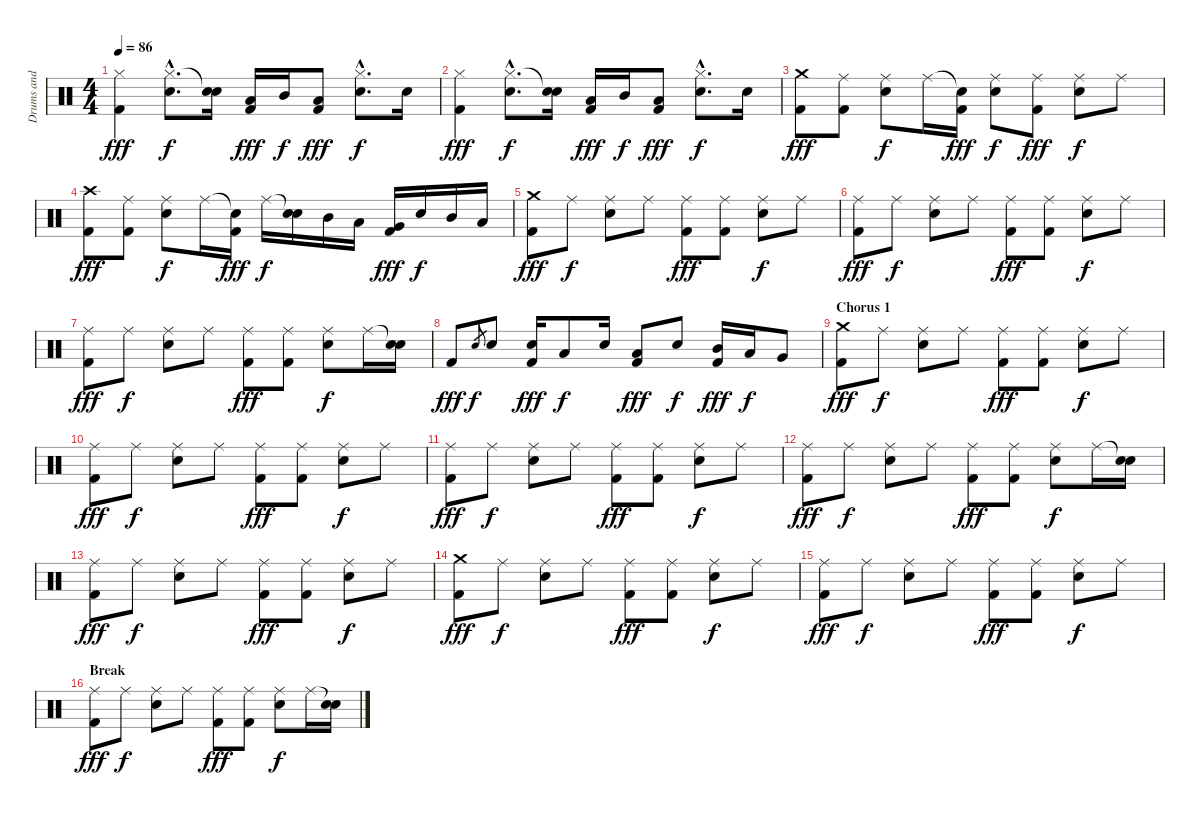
\track ("Drums and Percussion" "Drums and ") {instrument percussion}
\staff {score}
\articulation defaults
\ts (4 4)
\tempo 86
\clef neutral
\ks c
("Hi-Hat (closed)" "Kick (hit) 2").4{dy fff} ("Hi-Hat (closed)"{hac} "Snare (hit) 2"{hac}).8{d dy f} ("Snare (hit)"{t} "Snare (hit) 2").16 ("Low Tom (hit)" "Kick (hit) 2").16{dy fff} "Mid Tom (hit)".16{dy f} ("Low Tom (hit)" "Kick (hit) 2").8{dy fff} ("Hi-Hat (closed)"{hac} "Snare (hit) 2"{hac}).8{d dy f} "Snare (hit) 2".16 |
("Hi-Hat (closed)" "Kick (hit) 2").4{dy fff} ("Hi-Hat (closed)"{hac} "Snare (hit) 2"{hac}).8{d dy f} ("Snare (hit)"{t} "Snare (hit) 2").16 ("Low Tom (hit)" "Kick (hit) 2").16{dy fff} "Mid Tom (hit)".16{dy f} ("Low Tom (hit)" "Kick (hit) 2").8{dy fff} ("Hi-Hat (closed)"{hac} "Snare (hit) 2"{hac}).8{d dy f} "Snare (hit) 2".16 |
("Crash medium (hit)" "Kick (hit) 2").8{dy fff} ("Ride (middle)" "Kick (hit) 2").8 ("Ride (middle)" "Snare (hit) 2").8{dy f} "Ride (middle)".16 ("Snare (hit)"{t} "Kick (hit) 2").16{dy fff} ("Ride (middle)" "Snare (hit) 2").8{dy f} ("Ride (middle)" "Kick (hit) 2").8{dy fff} ("Ride (middle)" "Snare (hit) 2").8{dy f} "Ride (middle)".8 |
("Crash high (hit)" "Kick (hit) 2").8{dy fff} ("Ride (middle)" "Kick (hit) 2").8 ("Ride (middle)" "Snare (hit) 2").8{dy f} "Ride (middle)".16 ("Snare (hit)"{t} "Kick (hit) 2").16{dy fff} "Ride (middle)".16{dy f} ("Snare (hit)"{t} "Snare (hit) 2").16 "Mid Tom (hit)".16 "Low Tom (hit)".16 ("Very Low Tom (hit)" "Kick (hit) 2").16{dy fff} "Snare (hit) 2".16{dy f} "Mid Tom (hit)".16 "Low Tom (hit)".16 |
("Crash medium (hit)" "Kick (hit) 2").8{dy fff} "Ride (middle)".8{dy f} ("Ride (middle)" "Snare (hit) 2").8 "Ride (middle)".8 ("Ride (middle)" "Kick (hit) 2").8{dy fff} ("Ride (middle)" "Kick (hit) 2").8 ("Ride (middle)" "Snare (hit) 2").8{dy f} "Ride (middle)".8 |
("Ride (middle)" "Kick (hit) 2").8{dy fff} "Ride (middle)".8{dy f} ("Ride (middle)" "Snare (hit) 2").8 "Ride (middle)".8 ("Ride (middle)" "Kick (hit) 2").8{dy fff} ("Ride (middle)" "Kick (hit) 2").8 ("Ride (middle)" "Snare (hit) 2").8{dy f} "Ride (middle)".8 |
("Ride (middle)" "Kick (hit) 2").8{dy fff} "Ride (middle)".8{dy f} ("Ride (middle)" "Snare (hit) 2").8 "Ride (middle)".8 ("Ride (middle)" "Kick (hit) 2").8{dy fff} ("Ride (middle)" "Kick (hit) 2").8 ("Ride (middle)" "Snare (hit) 2").8{dy f} "Ride (middle)".16 ("Snare (hit)"{t} "Snare (hit) 2").16 |
"Kick (hit) 2".8{dy fff} "Snare (hit) 2".8{gr dy f} "Snare (hit) 2".8 ("Snare (hit) 2" "Kick (hit) 2").16{dy fff} "Low Tom (hit)".8{dy f} "Snare (hit) 2".16 ("Low Tom (hit)" "Kick (hit) 2").8{dy fff} "Snare (hit) 2".8{dy f} ("Mid Tom (hit)" "Kick (hit) 2").16{dy fff} "Low Tom (hit)".16{dy f} "Very Low Tom (hit)".8 |
\section ("" "Chorus 1")
("Crash medium (hit)" "Kick (hit) 2").8{dy fff} "Ride (middle)".8{dy f} ("Ride (middle)" "Snare (hit) 2").8 "Ride (middle)".8 ("Ride (middle)" "Kick (hit) 2").8{dy fff} ("Ride (middle)" "Kick (hit) 2").8 ("Ride (middle)" "Snare (hit) 2").8{dy f} "Ride (middle)".8 |
("Ride (middle)" "Kick (hit) 2").8{dy fff} "Ride (middle)".8{dy f} ("Ride (middle)" "Snare (hit) 2").8 "Ride (middle)".8 ("Ride (middle)" "Kick (hit) 2").8{dy fff} ("Ride (middle)" "Kick (hit) 2").8 ("Ride (middle)" "Snare (hit) 2").8{dy f} "Ride (middle)".8 |
("Ride (middle)" "Kick (hit) 2").8{dy fff} "Ride (middle)".8{dy f} ("Ride (middle)" "Snare (hit) 2").8 "Ride (middle)".8 ("Ride (middle)" "Kick (hit) 2").8{dy fff} ("Ride (middle)" "Kick (hit) 2").8 ("Ride (middle)" "Snare (hit) 2").8{dy f} "Ride (middle)".8 |
("Ride (middle)" "Kick (hit) 2").8{dy fff} "Ride (middle)".8{dy f} ("Ride (middle)" "Snare (hit) 2").8 "Ride (middle)".8 ("Ride (middle)" "Kick (hit) 2").8{dy fff} ("Ride (middle)" "Kick (hit) 2").8 ("Ride (middle)" "Snare (hit) 2").8{dy f} "Ride (middle)".16 ("Snare (hit)"{t} "Snare (hit) 2").16 |
("Ride (middle)" "Kick (hit) 2").8{dy fff} "Ride (middle)".8{dy f} ("Ride (middle)" "Snare (hit) 2").8 "Ride (middle)".8 ("Ride (middle)" "Kick (hit) 2").8{dy fff} ("Ride (middle)" "Kick (hit) 2").8 ("Ride (middle)" "Snare (hit) 2").8{dy f} "Ride (middle)".8 |
("Crash medium (hit)" "Kick (hit) 2").8{dy fff} "Ride (middle)".8{dy f} ("Ride (middle)" "Snare (hit) 2").8 "Ride (middle)".8 ("Ride (middle)" "Kick (hit) 2").8{dy fff} ("Ride (middle)" "Kick (hit) 2").8 ("Ride (middle)" "Snare (hit) 2").8{dy f} "Ride (middle)".8 |
("Ride (middle)" "Kick (hit) 2").8{dy fff} "Ride (middle)".8{dy f} ("Ride (middle)" "Snare (hit) 2").8 "Ride (middle)".8 ("Ride (middle)" "Kick (hit) 2").8{dy fff} ("Ride (middle)" "Kick (hit) 2").8 ("Ride (middle)" "Snare (hit) 2").8{dy f} "Ride (middle)".8 |
\section ("" "Break")
("Ride (middle)" "Kick (hit) 2").8{dy fff} "Ride (middle)".8{dy f} ("Ride (middle)" "Snare (hit) 2").8 "Ride (middle)".8 ("Ride (middle)" "Kick (hit) 2").8{dy fff} ("Ride (middle)" "Kick (hit) 2").8 ("Ride (middle)" "Snare (hit) 2").8{dy f} "Ride (middle)".16 ("Snare (hit)"{t} "Snare (hit) 2").16
